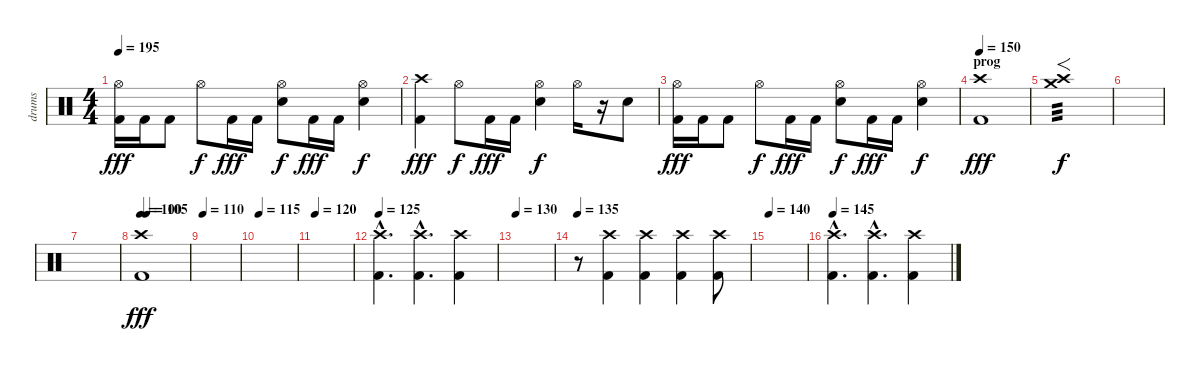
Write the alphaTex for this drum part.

\track ("drums" "drums") {instrument percussion}
\staff {score}
\articulation defaults
\ts (4 4)
\tempo 195
\clef neutral
\ks c
("Hi-Hat (open)" "Kick (hit) 2").16{dy fff} "Kick (hit) 2".16 "Kick (hit) 2".8 "Hi-Hat (open)".8{dy f} "Kick (hit) 2".16{dy fff} "Kick (hit) 2".16 ("Hi-Hat (open)" "Snare (hit) 2").8{dy f} "Kick (hit) 2".16{dy fff} "Kick (hit) 2".16 ("Hi-Hat (open)" "Snare (hit) 2").4{dy f} |
("Crash high (hit)" "Kick (hit) 2").4{dy fff} "Hi-Hat (open)".8{dy f} "Kick (hit) 2".16{dy fff} "Kick (hit) 2".16 ("Hi-Hat (open)" "Snare (hit) 2").4{dy f} "Hi-Hat (open)".16 r.16 "Snare (hit) 2".8 |
("Hi-Hat (open)" "Kick (hit) 2").16{dy fff} "Kick (hit) 2".16 "Kick (hit) 2".8 "Hi-Hat (open)".8{dy f} "Kick (hit) 2".16{dy fff} "Kick (hit) 2".16 ("Hi-Hat (open)" "Snare (hit) 2").8{dy f} "Kick (hit) 2".16{dy fff} "Kick (hit) 2".16 ("Hi-Hat (open)" "Snare (hit) 2").4{dy f} |
\section ("" "prog")
\tempo 150
("Crash high (hit)" "Kick (hit) 2").1{dy fff} |
("Crash high (hit)" "Crash medium (hit)").1{f tp 3 dy f} |
|
|
\tempo 100
\tempo (105 0.125)
("Crash high (hit)" "Kick (hit) 2").1{dy fff} |
\tempo 110
|
\tempo 115
|
\tempo 120
|
\tempo 125
("Crash high (hit)"{hac} "Kick (hit) 2"{hac}).4{d} ("Crash high (hit)"{hac} "Kick (hit) 2"{hac}).4{d} ("Crash high (hit)" "Kick (hit) 2").4 |
\tempo 130
|
\tempo 135
r.8 ("Crash high (hit)" "Kick (hit) 2").4 ("Crash high (hit)" "Kick (hit) 2").4 ("Crash high (hit)" "Kick (hit) 2").4 ("Crash high (hit)" "Kick (hit) 2").8 |
\tempo 140
|
\tempo 145
("Crash high (hit)"{hac} "Kick (hit) 2"{hac}).4{d} ("Crash high (hit)"{hac} "Kick (hit) 2"{hac}).4{d} ("Crash high (hit)" "Kick (hit) 2").4
